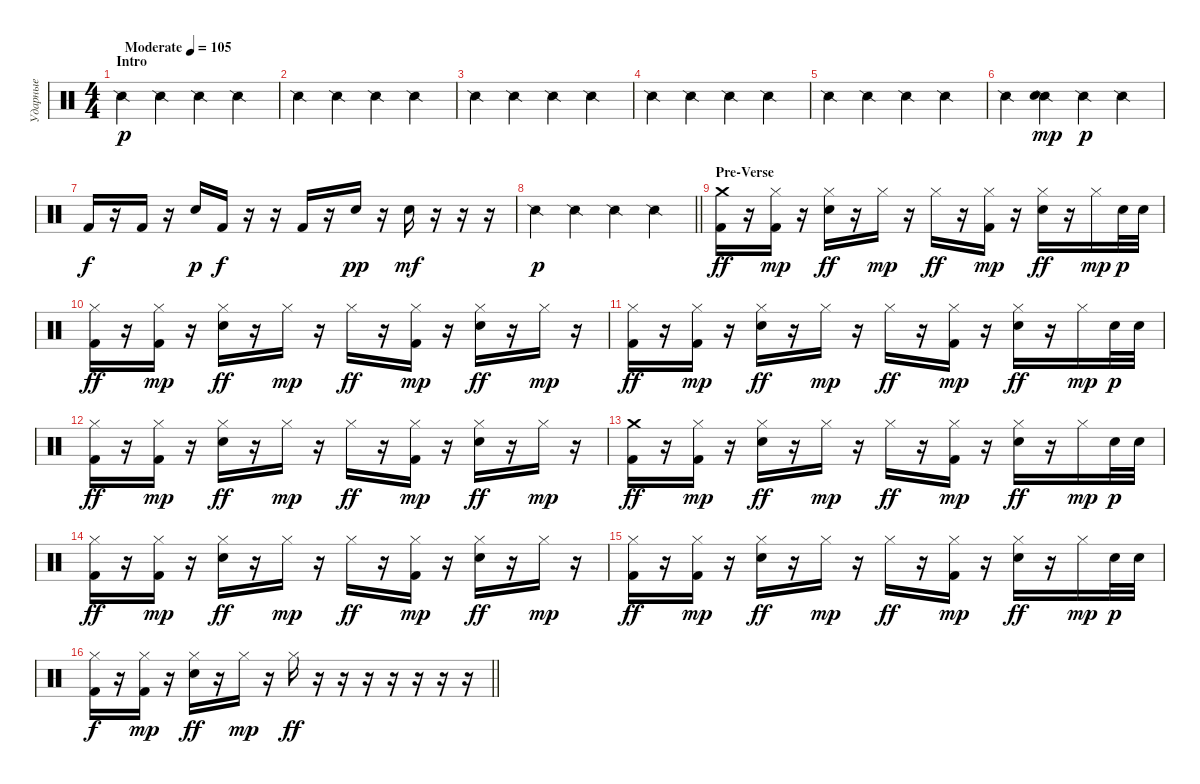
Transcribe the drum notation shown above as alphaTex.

\track ("Ударные" "Ударные") {instrument percussion}
\staff {score}
\articulation defaults
\ts (4 4)
\section ("" "Intro")
\tempo (105 "Moderate")
\clef neutral
\ks c "Snare (side stick) 2".4{dy p} "Snare (side stick) 2".4 "Snare (side stick) 2".4 "Snare (side stick) 2".4
|
"Snare (side stick) 2".4 "Snare (side stick) 2".4 "Snare (side stick) 2".4 "Snare (side stick) 2".4 |
"Snare (side stick) 2".4 "Snare (side stick) 2".4 "Snare (side stick) 2".4 "Snare (side stick) 2".4 |
"Snare (side stick) 2".4 "Snare (side stick) 2".4 "Snare (side stick) 2".4 "Snare (side stick) 2".4 |
"Snare (side stick) 2".4 "Snare (side stick) 2".4 "Snare (side stick) 2".4 "Snare (side stick) 2".4 |
"Snare (side stick) 2".4 ("Snare (side stick) 2" "Electric Snare (hit)").4{dy mp} "Snare (side stick) 2".4{dy p} "Snare (side stick) 2".4 |
"Kick (hit) 2".16{dy f} r.16 "Kick (hit) 2".16 r.16 "Electric Snare (hit)".16{dy p} "Kick (hit) 2".16{dy f} r.16 r.16 "Kick (hit) 2".16 r.16 "Electric Snare (hit)".16{dy pp} r.16 "Electric Snare (hit)".16{dy mf} r.16 r.16 r.16 |
\barLineRight lightlight "Snare (side stick) 2".4{dy p} "Snare (side stick) 2".4 "Snare (side stick) 2".4 "Snare (side stick) 2".4
|
\section ("" "Pre-Verse")
("Crash medium (hit)" "Kick (hit) 2").16{dy ff} r.16 ("Hi-Hat (closed)" "Kick (hit) 2").16{dy mp} r.16 ("Hi-Hat (closed)" "Electric Snare (hit)").16{dy ff} r.16 "Hi-Hat (closed)".16{dy mp} r.16 "Hi-Hat (closed)".16{dy ff} r.16 ("Hi-Hat (closed)" "Kick (hit) 2").16{dy mp} r.16 ("Hi-Hat (closed)" "Electric Snare (hit)").16{dy ff} r.16 "Hi-Hat (closed)".16{dy mp} "Electric Snare (hit)".32{dy p} "Electric Snare (hit)".32 |
("Hi-Hat (closed)" "Kick (hit) 2").16{dy ff} r.16 ("Hi-Hat (closed)" "Kick (hit) 2").16{dy mp} r.16 ("Hi-Hat (closed)" "Electric Snare (hit)").16{dy ff} r.16 "Hi-Hat (closed)".16{dy mp} r.16 "Hi-Hat (closed)".16{dy ff} r.16 ("Hi-Hat (closed)" "Kick (hit) 2").16{dy mp} r.16 ("Hi-Hat (closed)" "Electric Snare (hit)").16{dy ff} r.16 "Hi-Hat (closed)".16{dy mp} r.16 |
("Hi-Hat (closed)" "Kick (hit) 2").16{dy ff} r.16 ("Hi-Hat (closed)" "Kick (hit) 2").16{dy mp} r.16 ("Hi-Hat (closed)" "Electric Snare (hit)").16{dy ff} r.16 "Hi-Hat (closed)".16{dy mp} r.16 "Hi-Hat (closed)".16{dy ff} r.16 ("Hi-Hat (closed)" "Kick (hit) 2").16{dy mp} r.16 ("Hi-Hat (closed)" "Electric Snare (hit)").16{dy ff} r.16 "Hi-Hat (closed)".16{dy mp} "Electric Snare (hit)".32{dy p} "Electric Snare (hit)".32 |
("Hi-Hat (closed)" "Kick (hit) 2").16{dy ff} r.16 ("Hi-Hat (closed)" "Kick (hit) 2").16{dy mp} r.16 ("Hi-Hat (closed)" "Electric Snare (hit)").16{dy ff} r.16 "Hi-Hat (closed)".16{dy mp} r.16 "Hi-Hat (closed)".16{dy ff} r.16 ("Hi-Hat (closed)" "Kick (hit) 2").16{dy mp} r.16 ("Hi-Hat (closed)" "Electric Snare (hit)").16{dy ff} r.16 "Hi-Hat (closed)".16{dy mp} r.16 |
("Crash medium (hit)" "Kick (hit) 2").16{dy ff} r.16 ("Hi-Hat (closed)" "Kick (hit) 2").16{dy mp} r.16 ("Hi-Hat (closed)" "Electric Snare (hit)").16{dy ff} r.16 "Hi-Hat (closed)".16{dy mp} r.16 "Hi-Hat (closed)".16{dy ff} r.16 ("Hi-Hat (closed)" "Kick (hit) 2").16{dy mp} r.16 ("Hi-Hat (closed)" "Electric Snare (hit)").16{dy ff} r.16 "Hi-Hat (closed)".16{dy mp} "Electric Snare (hit)".32{dy p} "Electric Snare (hit)".32 |
("Hi-Hat (closed)" "Kick (hit) 2").16{dy ff} r.16 ("Hi-Hat (closed)" "Kick (hit) 2").16{dy mp} r.16 ("Hi-Hat (closed)" "Electric Snare (hit)").16{dy ff} r.16 "Hi-Hat (closed)".16{dy mp} r.16 "Hi-Hat (closed)".16{dy ff} r.16 ("Hi-Hat (closed)" "Kick (hit) 2").16{dy mp} r.16 ("Hi-Hat (closed)" "Electric Snare (hit)").16{dy ff} r.16 "Hi-Hat (closed)".16{dy mp} r.16 |
("Hi-Hat (closed)" "Kick (hit) 2").16{dy ff} r.16 ("Hi-Hat (closed)" "Kick (hit) 2").16{dy mp} r.16 ("Hi-Hat (closed)" "Electric Snare (hit)").16{dy ff} r.16 "Hi-Hat (closed)".16{dy mp} r.16 "Hi-Hat (closed)".16{dy ff} r.16 ("Hi-Hat (closed)" "Kick (hit) 2").16{dy mp} r.16 ("Hi-Hat (closed)" "Electric Snare (hit)").16{dy ff} r.16 "Hi-Hat (closed)".16{dy mp} "Electric Snare (hit)".32{dy p} "Electric Snare (hit)".32 |
\barLineRight lightlight
("Hi-Hat (closed)" "Kick (hit) 2").16{dy f} r.16 ("Hi-Hat (closed)" "Kick (hit) 2").16{dy mp} r.16 ("Hi-Hat (closed)" "Electric Snare (hit)").16{dy ff} r.16 "Hi-Hat (closed)".16{dy mp} r.16 "Hi-Hat (closed)".16{dy ff} r.16 r.16 r.16 r.16 r.16 r.16 r.16
